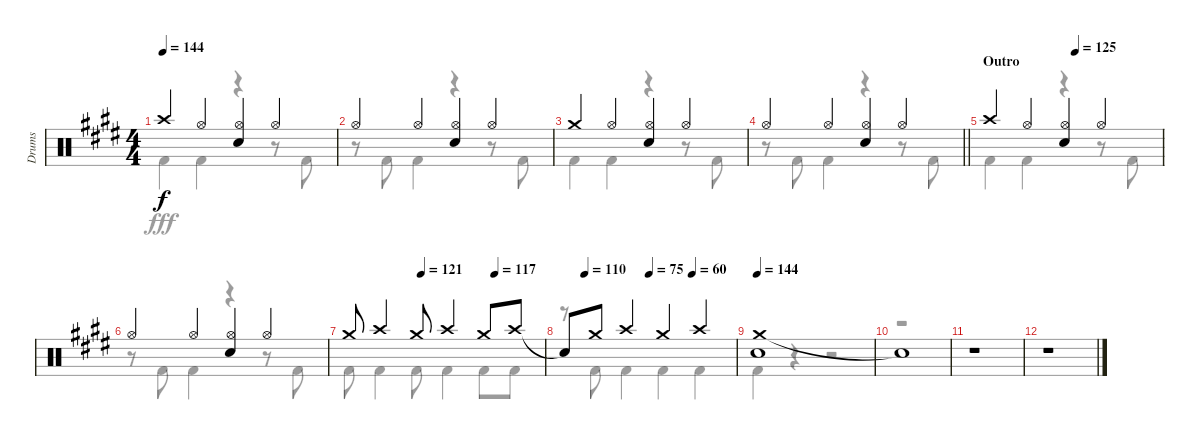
\track ("Drums" "Drums") {instrument percussion}
\staff {score}
\articulation defaults
\voice
\ts (4 4)
\tempo 144
\clef neutral
\ks e "Crash high (hit)".4{dy f} "Hi-Hat (open)".4
("Hi-Hat (open)" "Snare (hit) 2").4 "Hi-Hat (open)".4 |
"Hi-Hat (open)".4 "Hi-Hat (open)".4 ("Hi-Hat (open)" "Snare (hit) 2").4 "Hi-Hat (open)".4 |
"Crash medium (hit)".4 "Hi-Hat (open)".4 ("Hi-Hat (open)" "Snare (hit) 2").4 "Hi-Hat (open)".4 |
\barLineRight lightlight "Hi-Hat (open)".4 "Hi-Hat (open)".4
("Hi-Hat (open)" "Snare (hit) 2").4 "Hi-Hat (open)".4 |
\section ("" "Outro")
\tempo (125 0.5)
"Crash high (hit)".4 "Hi-Hat (open)".4 ("Hi-Hat (open)" "Snare (hit) 2").4 "Hi-Hat (open)".4 |
"Hi-Hat (open)".4 "Hi-Hat (open)".4 ("Hi-Hat (open)" "Snare (hit) 2").4 "Hi-Hat (open)".4 |
\tempo (121 0.375)
\tempo (117 0.75)
"Crash medium (hit)".8 "Crash high (hit)".4 "Crash medium (hit)".8 "Crash high (hit)".4 "Crash medium (hit)".8 "Crash high (hit)".8 |
\tempo (110 0.125)
\tempo (75 0.5)
\tempo (60 0.75)
"Snare (hit)"{t}.8 "Crash medium (hit)".8 "Crash high (hit)".4 "Crash medium (hit)".4 "Crash high (hit)".4 |
\tempo 144
("Crash medium (hit)" "Snare (hit) 2").1 |
"Snare (hit)"{t}.1 |
r.1 |
r.1
\voice
\clef neutral
\ottava regular
\simile none
\ks e "Kick (hit) 2".4{dy fff} "Kick (hit) 2".4
r.4 r.8 "Kick (hit) 2".8 |
r.8 "Kick (hit) 2".8 "Kick (hit) 2".4 r.4 r.8 "Kick (hit) 2".8 |
"Kick (hit) 2".4 "Kick (hit) 2".4 r.4 r.8 "Kick (hit) 2".8 |
\barLineRight lightlight
r.8 "Kick (hit) 2".8 "Kick (hit) 2".4 r.4 r.8 "Kick (hit) 2".8 |
"Kick (hit) 2".4 "Kick (hit) 2".4 r.4 r.8 "Kick (hit) 2".8 |
r.8 "Kick (hit) 2".8 "Kick (hit) 2".4 r.4 r.8 "Kick (hit) 2".8 |
"Kick (hit) 2".8 "Kick (hit) 2".4 "Kick (hit) 2".8 "Kick (hit) 2".4 "Kick (hit) 2".8 "Kick (hit) 2".8 |
r.8 "Kick (hit) 2".8 "Kick (hit) 2".4 "Kick (hit) 2".4 "Kick (hit) 2".4 |
"Kick (hit) 2".4 r.4 r.2 |
r.1 |
r.1 |
r.1
